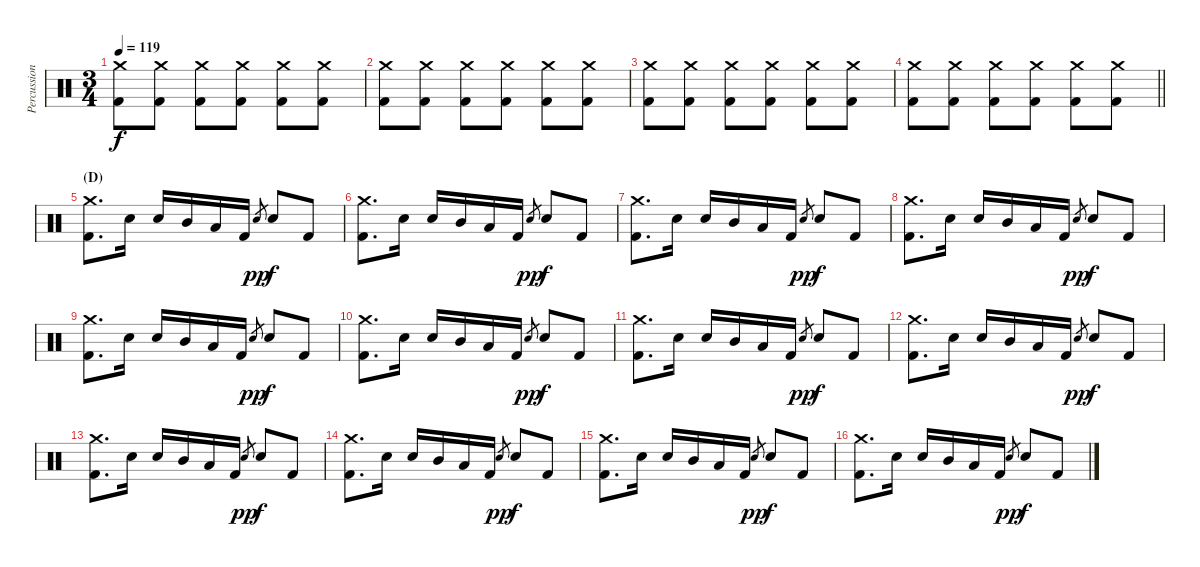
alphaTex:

\track ("Percussion 1" "Percussion") {instrument percussion}
\staff {score}
\articulation defaults
\ts (3 4)
\tempo 119
\clef neutral
\ks c
("Crash medium (hit)" "Kick (hit) 2").8{dy f} ("Crash medium (hit)" "Kick (hit) 2").8 ("Crash medium (hit)" "Kick (hit) 2").8 ("Crash medium (hit)" "Kick (hit) 2").8 ("Crash medium (hit)" "Kick (hit) 2").8 ("Crash medium (hit)" "Kick (hit) 2").8 |
("Crash medium (hit)" "Kick (hit) 2").8{volume 11} ("Crash medium (hit)" "Kick (hit) 2").8 ("Crash medium (hit)" "Kick (hit) 2").8 ("Crash medium (hit)" "Kick (hit) 2").8 ("Crash medium (hit)" "Kick (hit) 2").8 ("Crash medium (hit)" "Kick (hit) 2").8 |
("Crash medium (hit)" "Kick (hit) 2").8 ("Crash medium (hit)" "Kick (hit) 2").8 ("Crash medium (hit)" "Kick (hit) 2").8 ("Crash medium (hit)" "Kick (hit) 2").8 ("Crash medium (hit)" "Kick (hit) 2").8 ("Crash medium (hit)" "Kick (hit) 2").8 |
\barLineRight lightlight
("Crash medium (hit)" "Kick (hit) 2").8 ("Crash medium (hit)" "Kick (hit) 2").8 ("Crash medium (hit)" "Kick (hit) 2").8 ("Crash medium (hit)" "Kick (hit) 2").8 ("Crash medium (hit)" "Kick (hit) 2").8 ("Crash medium (hit)" "Kick (hit) 2").8 |
\section ("" "(D)")
("Crash medium (hit)" "Kick (hit) 2").8{d volume 14} "Snare (hit) 2".16 "Snare (hit) 2".16 "Mid Tom (hit)".16 "Low Tom (hit)".16 "Kick (hit) 2".16 "Snare (hit) 2".8{gr dy pp} "Snare (hit) 2".8{dy f} "Kick (hit) 2".8 |
("Crash medium (hit)" "Kick (hit) 2").8{d} "Snare (hit) 2".16 "Snare (hit) 2".16 "Mid Tom (hit)".16 "Low Tom (hit)".16 "Kick (hit) 2".16 "Snare (hit) 2".8{gr dy pp} "Snare (hit) 2".8{dy f} "Kick (hit) 2".8 |
("Crash medium (hit)" "Kick (hit) 2").8{d} "Snare (hit) 2".16 "Snare (hit) 2".16 "Mid Tom (hit)".16 "Low Tom (hit)".16 "Kick (hit) 2".16 "Snare (hit) 2".8{gr dy pp} "Snare (hit) 2".8{dy f} "Kick (hit) 2".8 |
("Crash medium (hit)" "Kick (hit) 2").8{d} "Snare (hit) 2".16 "Snare (hit) 2".16 "Mid Tom (hit)".16 "Low Tom (hit)".16 "Kick (hit) 2".16 "Snare (hit) 2".8{gr dy pp} "Snare (hit) 2".8{dy f} "Kick (hit) 2".8 |
("Crash medium (hit)" "Kick (hit) 2").8{d} "Snare (hit) 2".16 "Snare (hit) 2".16 "Mid Tom (hit)".16 "Low Tom (hit)".16 "Kick (hit) 2".16 "Snare (hit) 2".8{gr dy pp} "Snare (hit) 2".8{dy f} "Kick (hit) 2".8 |
("Crash medium (hit)" "Kick (hit) 2").8{d} "Snare (hit) 2".16 "Snare (hit) 2".16 "Mid Tom (hit)".16 "Low Tom (hit)".16 "Kick (hit) 2".16 "Snare (hit) 2".8{gr dy pp} "Snare (hit) 2".8{dy f} "Kick (hit) 2".8 |
("Crash medium (hit)" "Kick (hit) 2").8{d} "Snare (hit) 2".16 "Snare (hit) 2".16 "Mid Tom (hit)".16 "Low Tom (hit)".16 "Kick (hit) 2".16 "Snare (hit) 2".8{gr dy pp} "Snare (hit) 2".8{dy f} "Kick (hit) 2".8 |
("Crash medium (hit)" "Kick (hit) 2").8{d} "Snare (hit) 2".16 "Snare (hit) 2".16 "Mid Tom (hit)".16 "Low Tom (hit)".16 "Kick (hit) 2".16 "Snare (hit) 2".8{gr dy pp} "Snare (hit) 2".8{dy f} "Kick (hit) 2".8 |
("Crash medium (hit)" "Kick (hit) 2").8{d} "Snare (hit) 2".16 "Snare (hit) 2".16 "Mid Tom (hit)".16 "Low Tom (hit)".16 "Kick (hit) 2".16 "Snare (hit) 2".8{gr dy pp} "Snare (hit) 2".8{dy f} "Kick (hit) 2".8 |
("Crash medium (hit)" "Kick (hit) 2").8{d} "Snare (hit) 2".16 "Snare (hit) 2".16 "Mid Tom (hit)".16 "Low Tom (hit)".16 "Kick (hit) 2".16 "Snare (hit) 2".8{gr dy pp} "Snare (hit) 2".8{dy f} "Kick (hit) 2".8 |
("Crash medium (hit)" "Kick (hit) 2").8{d} "Snare (hit) 2".16 "Snare (hit) 2".16 "Mid Tom (hit)".16 "Low Tom (hit)".16 "Kick (hit) 2".16 "Snare (hit) 2".8{gr dy pp} "Snare (hit) 2".8{dy f} "Kick (hit) 2".8 |
("Crash medium (hit)" "Kick (hit) 2").8{d} "Snare (hit) 2".16 "Snare (hit) 2".16 "Mid Tom (hit)".16 "Low Tom (hit)".16 "Kick (hit) 2".16 "Snare (hit) 2".8{gr dy pp} "Snare (hit) 2".8{dy f} "Kick (hit) 2".8
